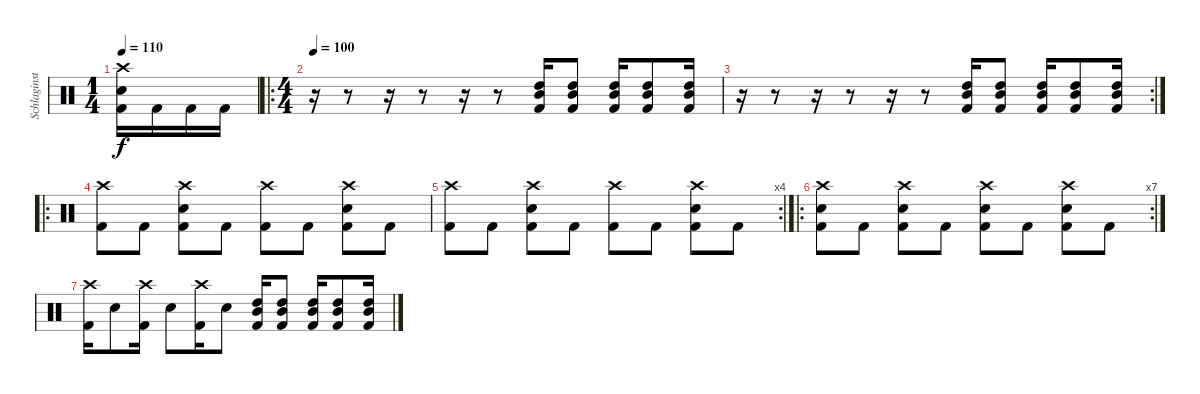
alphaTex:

\track ("Schlaginstrumente - Auswahl" "Schlaginst") {instrument percussion}
\staff {score}
\articulation defaults
\ts (1 4)
\tempo 110
\clef neutral
\ks c
("Crash high (hit)" "Electric Snare (hit)" "Kick (hit) 2").16{dy f} "Kick (hit) 2".16 "Kick (hit) 2".16 "Kick (hit) 2".16 |
\ro
\ts (4 4)
\tempo 100
r.16 r.8 r.16 r.8 r.16 r.8 ("Kick (hit) 2" "High Tom (hit)" "Mid Tom (hit)").16 ("Kick (hit) 2" "High Tom (hit)" "Mid Tom (hit)").8 ("Kick (hit) 2" "High Tom (hit)" "Mid Tom (hit)").16 ("Kick (hit) 2" "High Tom (hit)" "Mid Tom (hit)").8 ("Kick (hit) 2" "High Tom (hit)" "Mid Tom (hit)").16 |
\rc 2
r.16 r.8 r.16 r.8 r.16 r.8 ("Kick (hit) 2" "High Tom (hit)" "Mid Tom (hit)").16 ("Kick (hit) 2" "High Tom (hit)" "Mid Tom (hit)").8 ("Kick (hit) 2" "High Tom (hit)" "Mid Tom (hit)").16 ("Kick (hit) 2" "High Tom (hit)" "Mid Tom (hit)").8 ("Kick (hit) 2" "High Tom (hit)" "Mid Tom (hit)").16 |
\ro
("Crash high (hit)" "Kick (hit) 2").8 "Kick (hit) 2".8 ("Crash high (hit)" "Electric Snare (hit)" "Kick (hit) 2").8 "Kick (hit) 2".8 ("Crash high (hit)" "Kick (hit) 2").8 "Kick (hit) 2".8 ("Crash high (hit)" "Electric Snare (hit)" "Kick (hit) 2").8 "Kick (hit) 2".8 |
\rc 4
("Crash high (hit)" "Kick (hit) 2").8 "Kick (hit) 2".8 ("Crash high (hit)" "Electric Snare (hit)" "Kick (hit) 2").8 "Kick (hit) 2".8 ("Crash high (hit)" "Kick (hit) 2").8 "Kick (hit) 2".8 ("Crash high (hit)" "Electric Snare (hit)" "Kick (hit) 2").8 "Kick (hit) 2".8 |
\ro
\rc 7
("Crash high (hit)" "Electric Snare (hit)" "Kick (hit) 2").8 "Kick (hit) 2".8 ("Crash high (hit)" "Electric Snare (hit)" "Kick (hit) 2").8 "Kick (hit) 2".8 ("Crash high (hit)" "Electric Snare (hit)" "Kick (hit) 2").8 "Kick (hit) 2".8 ("Crash high (hit)" "Electric Snare (hit)" "Kick (hit) 2").8 "Kick (hit) 2".8 |
("Crash high (hit)" "Kick (hit) 2").16 "Electric Snare (hit)".8 ("Crash high (hit)" "Kick (hit) 2").16 "Electric Snare (hit)".8 ("Crash high (hit)" "Kick (hit) 2").16 "Electric Snare (hit)".8 ("Kick (hit) 2" "High Tom (hit)" "Mid Tom (hit)").16 ("Kick (hit) 2" "High Tom (hit)" "Mid Tom (hit)").8 ("Kick (hit) 2" "High Tom (hit)" "Mid Tom (hit)").16 ("Kick (hit) 2" "High Tom (hit)" "Mid Tom (hit)").8 ("Kick (hit) 2" "High Tom (hit)" "Mid Tom (hit)").16
